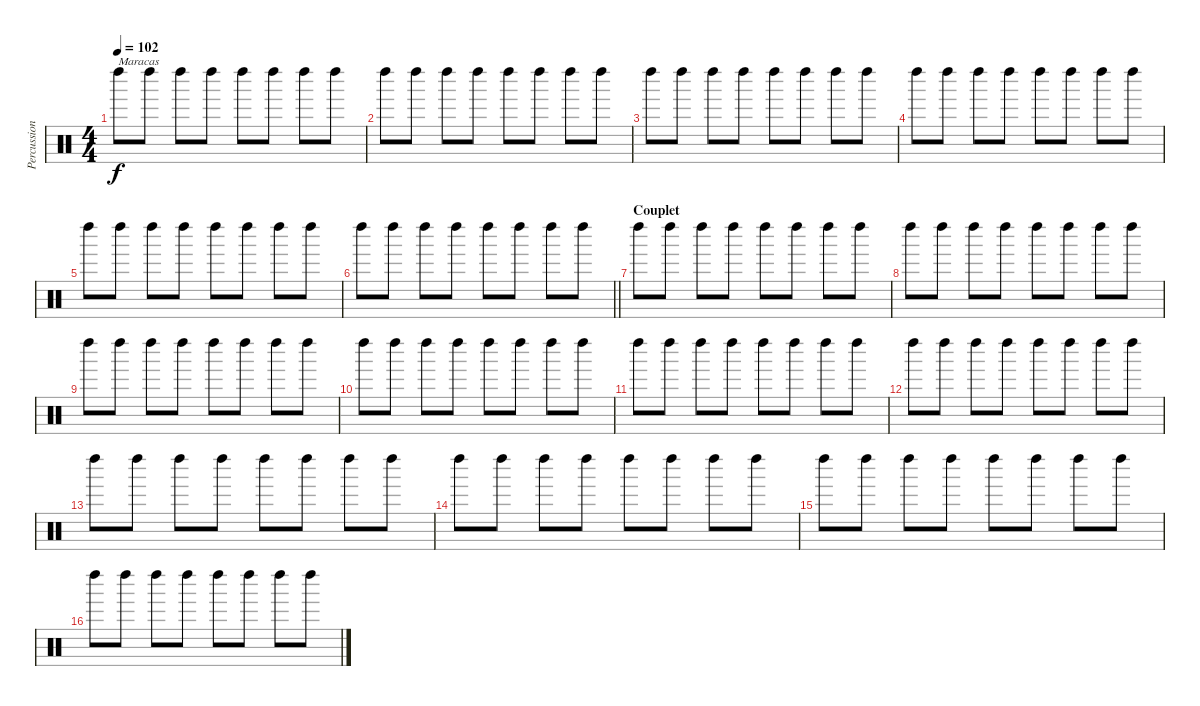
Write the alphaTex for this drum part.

\track ("Percussions" "Percussion") {instrument percussion}
\staff {score}
\articulation defaults
\ts (4 4)
\tempo 102
\clef neutral
\ks c "Left Maraca (hit)".8{txt "Maracas" dy f} "Left Maraca (hit)".8 "Left Maraca (hit)".8 "Left Maraca (hit)".8 "Left Maraca (hit)".8 "Left Maraca (hit)".8 "Left Maraca (hit)".8 "Left Maraca (hit)".8
|
"Left Maraca (hit)".8 "Left Maraca (hit)".8 "Left Maraca (hit)".8 "Left Maraca (hit)".8 "Left Maraca (hit)".8 "Left Maraca (hit)".8 "Left Maraca (hit)".8 "Left Maraca (hit)".8 |
"Left Maraca (hit)".8 "Left Maraca (hit)".8 "Left Maraca (hit)".8 "Left Maraca (hit)".8 "Left Maraca (hit)".8 "Left Maraca (hit)".8 "Left Maraca (hit)".8 "Left Maraca (hit)".8 |
"Left Maraca (hit)".8 "Left Maraca (hit)".8 "Left Maraca (hit)".8 "Left Maraca (hit)".8 "Left Maraca (hit)".8 "Left Maraca (hit)".8 "Left Maraca (hit)".8 "Left Maraca (hit)".8 |
"Left Maraca (hit)".8 "Left Maraca (hit)".8 "Left Maraca (hit)".8 "Left Maraca (hit)".8 "Left Maraca (hit)".8 "Left Maraca (hit)".8 "Left Maraca (hit)".8 "Left Maraca (hit)".8 |
\barLineRight lightlight "Left Maraca (hit)".8 "Left Maraca (hit)".8 "Left Maraca (hit)".8 "Left Maraca (hit)".8 "Left Maraca (hit)".8 "Left Maraca (hit)".8 "Left Maraca (hit)".8 "Left Maraca (hit)".8
|
\section ("" "Couplet")
"Left Maraca (hit)".8 "Left Maraca (hit)".8 "Left Maraca (hit)".8 "Left Maraca (hit)".8 "Left Maraca (hit)".8 "Left Maraca (hit)".8 "Left Maraca (hit)".8 "Left Maraca (hit)".8 |
"Left Maraca (hit)".8 "Left Maraca (hit)".8 "Left Maraca (hit)".8 "Left Maraca (hit)".8 "Left Maraca (hit)".8 "Left Maraca (hit)".8 "Left Maraca (hit)".8 "Left Maraca (hit)".8 |
"Left Maraca (hit)".8 "Left Maraca (hit)".8 "Left Maraca (hit)".8 "Left Maraca (hit)".8 "Left Maraca (hit)".8 "Left Maraca (hit)".8 "Left Maraca (hit)".8 "Left Maraca (hit)".8 |
"Left Maraca (hit)".8 "Left Maraca (hit)".8 "Left Maraca (hit)".8 "Left Maraca (hit)".8 "Left Maraca (hit)".8 "Left Maraca (hit)".8 "Left Maraca (hit)".8 "Left Maraca (hit)".8 |
"Left Maraca (hit)".8 "Left Maraca (hit)".8 "Left Maraca (hit)".8 "Left Maraca (hit)".8 "Left Maraca (hit)".8 "Left Maraca (hit)".8 "Left Maraca (hit)".8 "Left Maraca (hit)".8 |
"Left Maraca (hit)".8 "Left Maraca (hit)".8 "Left Maraca (hit)".8 "Left Maraca (hit)".8 "Left Maraca (hit)".8 "Left Maraca (hit)".8 "Left Maraca (hit)".8 "Left Maraca (hit)".8 |
"Left Maraca (hit)".8 "Left Maraca (hit)".8 "Left Maraca (hit)".8 "Left Maraca (hit)".8 "Left Maraca (hit)".8 "Left Maraca (hit)".8 "Left Maraca (hit)".8 "Left Maraca (hit)".8 |
"Left Maraca (hit)".8 "Left Maraca (hit)".8 "Left Maraca (hit)".8 "Left Maraca (hit)".8 "Left Maraca (hit)".8 "Left Maraca (hit)".8 "Left Maraca (hit)".8 "Left Maraca (hit)".8 |
"Left Maraca (hit)".8 "Left Maraca (hit)".8 "Left Maraca (hit)".8 "Left Maraca (hit)".8 "Left Maraca (hit)".8 "Left Maraca (hit)".8 "Left Maraca (hit)".8 "Left Maraca (hit)".8 |
"Left Maraca (hit)".8 "Left Maraca (hit)".8 "Left Maraca (hit)".8 "Left Maraca (hit)".8 "Left Maraca (hit)".8 "Left Maraca (hit)".8 "Left Maraca (hit)".8 "Left Maraca (hit)".8
